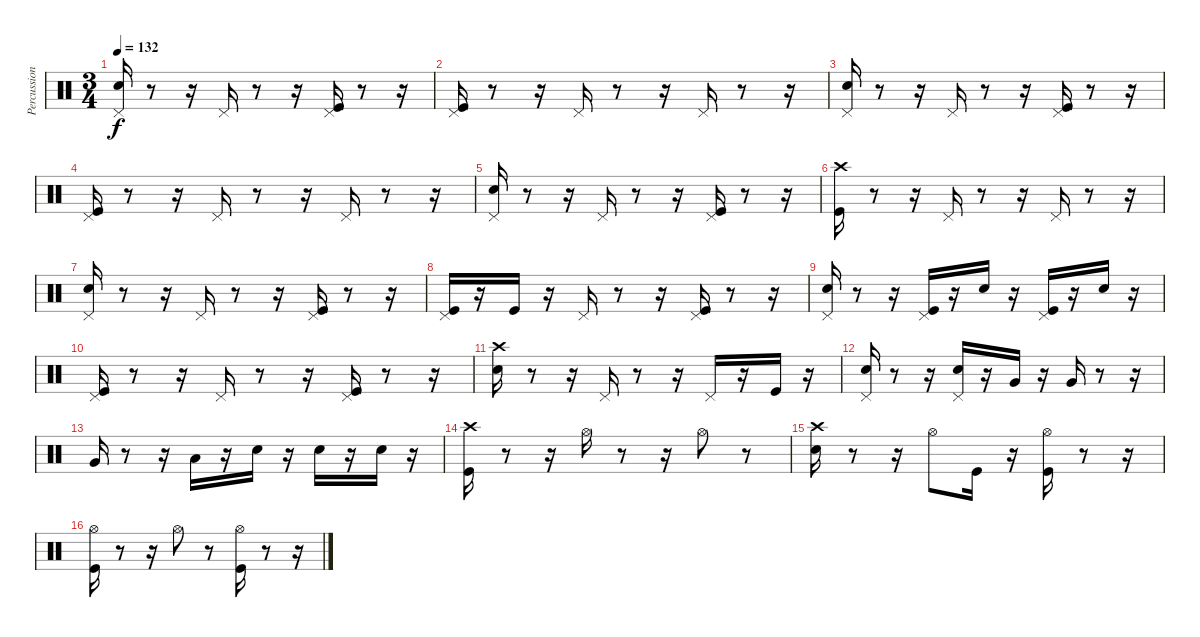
\track ("Percussion" "Percussion") {instrument percussion}
\staff {score}
\articulation defaults
\ts (3 4)
\tempo 132
\clef neutral
\ks c
("Pedal Hi-Hat (hit)" "Snare (hit) 2").16{dy f} r.8 r.16 "Pedal Hi-Hat (hit)".16 r.8 r.16 ("Pedal Hi-Hat (hit)" "Kick (hit)").16 r.8 r.16 |
("Pedal Hi-Hat (hit)" "Kick (hit)").16 r.8 r.16 "Pedal Hi-Hat (hit)".16 r.8 r.16 "Pedal Hi-Hat (hit)".16 r.8 r.16 |
("Pedal Hi-Hat (hit)" "Snare (hit) 2").16 r.8 r.16 "Pedal Hi-Hat (hit)".16 r.8 r.16 ("Pedal Hi-Hat (hit)" "Kick (hit)").16 r.8 r.16 |
("Pedal Hi-Hat (hit)" "Kick (hit)").16 r.8 r.16 "Pedal Hi-Hat (hit)".16 r.8 r.16 "Pedal Hi-Hat (hit)".16 r.8 r.16 |
("Pedal Hi-Hat (hit)" "Snare (hit) 2").16 r.8 r.16 "Pedal Hi-Hat (hit)".16 r.8 r.16 ("Pedal Hi-Hat (hit)" "Kick (hit)").16 r.8 r.16 |
("Crash high (hit)" "Kick (hit)").16 r.8 r.16 "Pedal Hi-Hat (hit)".16 r.8 r.16 "Pedal Hi-Hat (hit)".16 r.8 r.16 |
("Pedal Hi-Hat (hit)" "Snare (hit) 2").16 r.8 r.16 "Pedal Hi-Hat (hit)".16 r.8 r.16 ("Pedal Hi-Hat (hit)" "Kick (hit)").16 r.8 r.16 |
("Pedal Hi-Hat (hit)" "Kick (hit)").16 r.16 "Kick (hit)".16 r.16 "Pedal Hi-Hat (hit)".16 r.8 r.16 ("Pedal Hi-Hat (hit)" "Kick (hit)").16 r.8 r.16 |
("Pedal Hi-Hat (hit)" "Snare (hit) 2").16 r.8 r.16 ("Pedal Hi-Hat (hit)" "Kick (hit)").16 r.16 "Snare (hit) 2".16 r.16 ("Pedal Hi-Hat (hit)" "Kick (hit)").16 r.16 "Snare (hit) 2".16 r.16 |
("Kick (hit)" "Pedal Hi-Hat (hit)").16 r.8 r.16 "Pedal Hi-Hat (hit)".16 r.8 r.16 ("Pedal Hi-Hat (hit)" "Kick (hit)").16 r.8 r.16 |
("Snare (hit) 2" "Crash high (hit)").16 r.8 r.16 "Pedal Hi-Hat (hit)".16 r.8 r.16 "Pedal Hi-Hat (hit)".16 r.16 "Kick (hit)".16 r.16 |
("Pedal Hi-Hat (hit)" "Snare (hit) 2").16 r.8 r.16 ("Pedal Hi-Hat (hit)" "Snare (hit) 2").16 r.16 "Very Low Tom (hit)".16 r.16 "Very Low Tom (hit)".16 r.8 r.16 |
"Very Low Tom (hit)".16 r.8 r.16 "Low Floor Tom (hit)".16 r.16 "Snare (hit) 2".16 r.16 "Snare (hit) 2".16 r.16 "Snare (hit) 2".16 r.16 |
("Kick (hit)" "Crash high (hit)").16 r.8 r.16 "Hi-Hat (open)".16 r.8 r.16 "Hi-Hat (open)".8 r.8 |
("Snare (hit) 2" "Crash high (hit)").16 r.8 r.16 "Hi-Hat (open)".8 "Kick (hit)".16 r.16 ("Hi-Hat (open)" "Kick (hit)").16 r.8 r.16 |
("Kick (hit)" "Hi-Hat (open)").16 r.8 r.16 "Hi-Hat (open)".8 r.8 ("Hi-Hat (open)" "Kick (hit)").16 r.8 r.16
